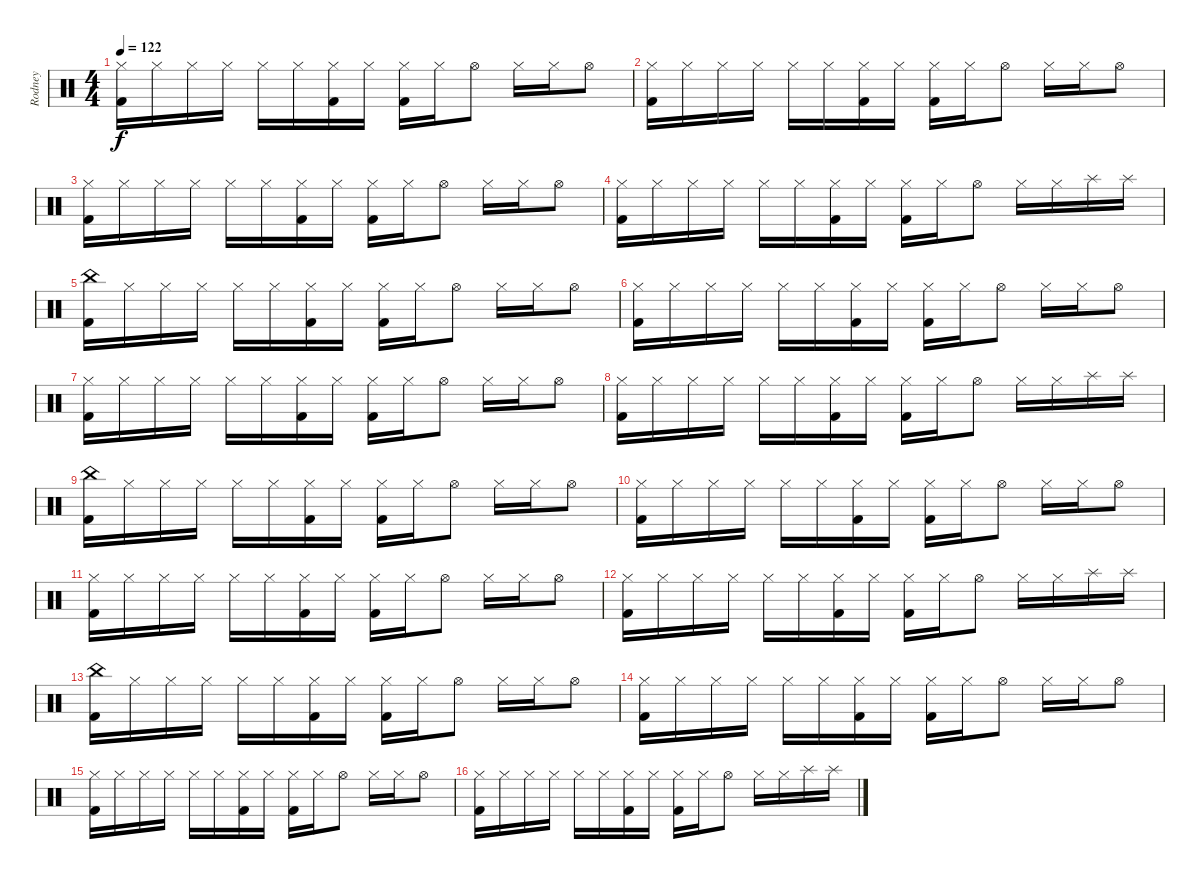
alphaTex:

\track ("Rodney" "Rodney") {instrument percussion}
\staff {score}
\articulation defaults
\ts (4 4)
\tempo 122
\clef neutral
\ks c
("Hi-Hat (closed)" "Kick (hit) 2").16{dy f} "Hi-Hat (closed)".16 "Hi-Hat (closed)".16 "Hi-Hat (closed)".16 "Hi-Hat (closed)".16 "Hi-Hat (closed)".16 ("Hi-Hat (closed)" "Kick (hit) 2").16 "Hi-Hat (closed)".16 ("Hi-Hat (closed)" "Kick (hit) 2").16 "Hi-Hat (closed)".16 "Hi-Hat (open)".8 "Hi-Hat (closed)".16 "Hi-Hat (closed)".16 "Hi-Hat (open)".8 |
("Hi-Hat (closed)" "Kick (hit) 2").16 "Hi-Hat (closed)".16 "Hi-Hat (closed)".16 "Hi-Hat (closed)".16 "Hi-Hat (closed)".16 "Hi-Hat (closed)".16 ("Hi-Hat (closed)" "Kick (hit) 2").16 "Hi-Hat (closed)".16 ("Hi-Hat (closed)" "Kick (hit) 2").16 "Hi-Hat (closed)".16 "Hi-Hat (open)".8 "Hi-Hat (closed)".16 "Hi-Hat (closed)".16 "Hi-Hat (open)".8 |
("Hi-Hat (closed)" "Kick (hit) 2").16 "Hi-Hat (closed)".16 "Hi-Hat (closed)".16 "Hi-Hat (closed)".16 "Hi-Hat (closed)".16 "Hi-Hat (closed)".16 ("Hi-Hat (closed)" "Kick (hit) 2").16 "Hi-Hat (closed)".16 ("Hi-Hat (closed)" "Kick (hit) 2").16 "Hi-Hat (closed)".16 "Hi-Hat (open)".8 "Hi-Hat (closed)".16 "Hi-Hat (closed)".16 "Hi-Hat (open)".8 |
("Hi-Hat (closed)" "Kick (hit) 2").16 "Hi-Hat (closed)".16 "Hi-Hat (closed)".16 "Hi-Hat (closed)".16 "Hi-Hat (closed)".16 "Hi-Hat (closed)".16 ("Hi-Hat (closed)" "Kick (hit) 2").16 "Hi-Hat (closed)".16 ("Hi-Hat (closed)" "Kick (hit) 2").16 "Hi-Hat (closed)".16 "Hi-Hat (open)".8 "Hi-Hat (closed)".16 "Hi-Hat (closed)".16 "Splash (hit)".16 "Splash (hit)".16 |
("China (hit)" "Kick (hit) 2").16 "Hi-Hat (closed)".16 "Hi-Hat (closed)".16 "Hi-Hat (closed)".16 "Hi-Hat (closed)".16 "Hi-Hat (closed)".16 ("Hi-Hat (closed)" "Kick (hit) 2").16 "Hi-Hat (closed)".16 ("Hi-Hat (closed)" "Kick (hit) 2").16 "Hi-Hat (closed)".16 "Hi-Hat (open)".8 "Hi-Hat (closed)".16 "Hi-Hat (closed)".16 "Hi-Hat (open)".8 |
("Hi-Hat (closed)" "Kick (hit) 2").16 "Hi-Hat (closed)".16 "Hi-Hat (closed)".16 "Hi-Hat (closed)".16 "Hi-Hat (closed)".16 "Hi-Hat (closed)".16 ("Hi-Hat (closed)" "Kick (hit) 2").16 "Hi-Hat (closed)".16 ("Hi-Hat (closed)" "Kick (hit) 2").16 "Hi-Hat (closed)".16 "Hi-Hat (open)".8 "Hi-Hat (closed)".16 "Hi-Hat (closed)".16 "Hi-Hat (open)".8 |
("Hi-Hat (closed)" "Kick (hit) 2").16 "Hi-Hat (closed)".16 "Hi-Hat (closed)".16 "Hi-Hat (closed)".16 "Hi-Hat (closed)".16 "Hi-Hat (closed)".16 ("Hi-Hat (closed)" "Kick (hit) 2").16 "Hi-Hat (closed)".16 ("Hi-Hat (closed)" "Kick (hit) 2").16 "Hi-Hat (closed)".16 "Hi-Hat (open)".8 "Hi-Hat (closed)".16 "Hi-Hat (closed)".16 "Hi-Hat (open)".8 |
("Hi-Hat (closed)" "Kick (hit) 2").16 "Hi-Hat (closed)".16 "Hi-Hat (closed)".16 "Hi-Hat (closed)".16 "Hi-Hat (closed)".16 "Hi-Hat (closed)".16 ("Hi-Hat (closed)" "Kick (hit) 2").16 "Hi-Hat (closed)".16 ("Hi-Hat (closed)" "Kick (hit) 2").16 "Hi-Hat (closed)".16 "Hi-Hat (open)".8 "Hi-Hat (closed)".16 "Hi-Hat (closed)".16 "Splash (hit)".16 "Splash (hit)".16 |
("China (hit)" "Kick (hit) 2").16 "Hi-Hat (closed)".16 "Hi-Hat (closed)".16 "Hi-Hat (closed)".16 "Hi-Hat (closed)".16 "Hi-Hat (closed)".16 ("Hi-Hat (closed)" "Kick (hit) 2").16 "Hi-Hat (closed)".16 ("Hi-Hat (closed)" "Kick (hit) 2").16 "Hi-Hat (closed)".16 "Hi-Hat (open)".8 "Hi-Hat (closed)".16 "Hi-Hat (closed)".16 "Hi-Hat (open)".8 |
("Hi-Hat (closed)" "Kick (hit) 2").16 "Hi-Hat (closed)".16 "Hi-Hat (closed)".16 "Hi-Hat (closed)".16 "Hi-Hat (closed)".16 "Hi-Hat (closed)".16 ("Hi-Hat (closed)" "Kick (hit) 2").16 "Hi-Hat (closed)".16 ("Hi-Hat (closed)" "Kick (hit) 2").16 "Hi-Hat (closed)".16 "Hi-Hat (open)".8 "Hi-Hat (closed)".16 "Hi-Hat (closed)".16 "Hi-Hat (open)".8 |
("Hi-Hat (closed)" "Kick (hit) 2").16 "Hi-Hat (closed)".16 "Hi-Hat (closed)".16 "Hi-Hat (closed)".16 "Hi-Hat (closed)".16 "Hi-Hat (closed)".16 ("Hi-Hat (closed)" "Kick (hit) 2").16 "Hi-Hat (closed)".16 ("Hi-Hat (closed)" "Kick (hit) 2").16 "Hi-Hat (closed)".16 "Hi-Hat (open)".8 "Hi-Hat (closed)".16 "Hi-Hat (closed)".16 "Hi-Hat (open)".8 |
("Hi-Hat (closed)" "Kick (hit) 2").16 "Hi-Hat (closed)".16 "Hi-Hat (closed)".16 "Hi-Hat (closed)".16 "Hi-Hat (closed)".16 "Hi-Hat (closed)".16 ("Hi-Hat (closed)" "Kick (hit) 2").16 "Hi-Hat (closed)".16 ("Hi-Hat (closed)" "Kick (hit) 2").16 "Hi-Hat (closed)".16 "Hi-Hat (open)".8 "Hi-Hat (closed)".16 "Hi-Hat (closed)".16 "Splash (hit)".16 "Splash (hit)".16 |
("China (hit)" "Kick (hit) 2").16 "Hi-Hat (closed)".16 "Hi-Hat (closed)".16 "Hi-Hat (closed)".16 "Hi-Hat (closed)".16 "Hi-Hat (closed)".16 ("Hi-Hat (closed)" "Kick (hit) 2").16 "Hi-Hat (closed)".16 ("Hi-Hat (closed)" "Kick (hit) 2").16 "Hi-Hat (closed)".16 "Hi-Hat (open)".8 "Hi-Hat (closed)".16 "Hi-Hat (closed)".16 "Hi-Hat (open)".8 |
("Hi-Hat (closed)" "Kick (hit) 2").16 "Hi-Hat (closed)".16 "Hi-Hat (closed)".16 "Hi-Hat (closed)".16 "Hi-Hat (closed)".16 "Hi-Hat (closed)".16 ("Hi-Hat (closed)" "Kick (hit) 2").16 "Hi-Hat (closed)".16 ("Hi-Hat (closed)" "Kick (hit) 2").16 "Hi-Hat (closed)".16 "Hi-Hat (open)".8 "Hi-Hat (closed)".16 "Hi-Hat (closed)".16 "Hi-Hat (open)".8 |
("Hi-Hat (closed)" "Kick (hit) 2").16 "Hi-Hat (closed)".16 "Hi-Hat (closed)".16 "Hi-Hat (closed)".16 "Hi-Hat (closed)".16 "Hi-Hat (closed)".16 ("Hi-Hat (closed)" "Kick (hit) 2").16 "Hi-Hat (closed)".16 ("Hi-Hat (closed)" "Kick (hit) 2").16 "Hi-Hat (closed)".16 "Hi-Hat (open)".8 "Hi-Hat (closed)".16 "Hi-Hat (closed)".16 "Hi-Hat (open)".8 |
("Hi-Hat (closed)" "Kick (hit) 2").16 "Hi-Hat (closed)".16 "Hi-Hat (closed)".16 "Hi-Hat (closed)".16 "Hi-Hat (closed)".16 "Hi-Hat (closed)".16 ("Hi-Hat (closed)" "Kick (hit) 2").16 "Hi-Hat (closed)".16 ("Hi-Hat (closed)" "Kick (hit) 2").16 "Hi-Hat (closed)".16 "Hi-Hat (open)".8 "Hi-Hat (closed)".16 "Hi-Hat (closed)".16 "Splash (hit)".16 "Splash (hit)".16
